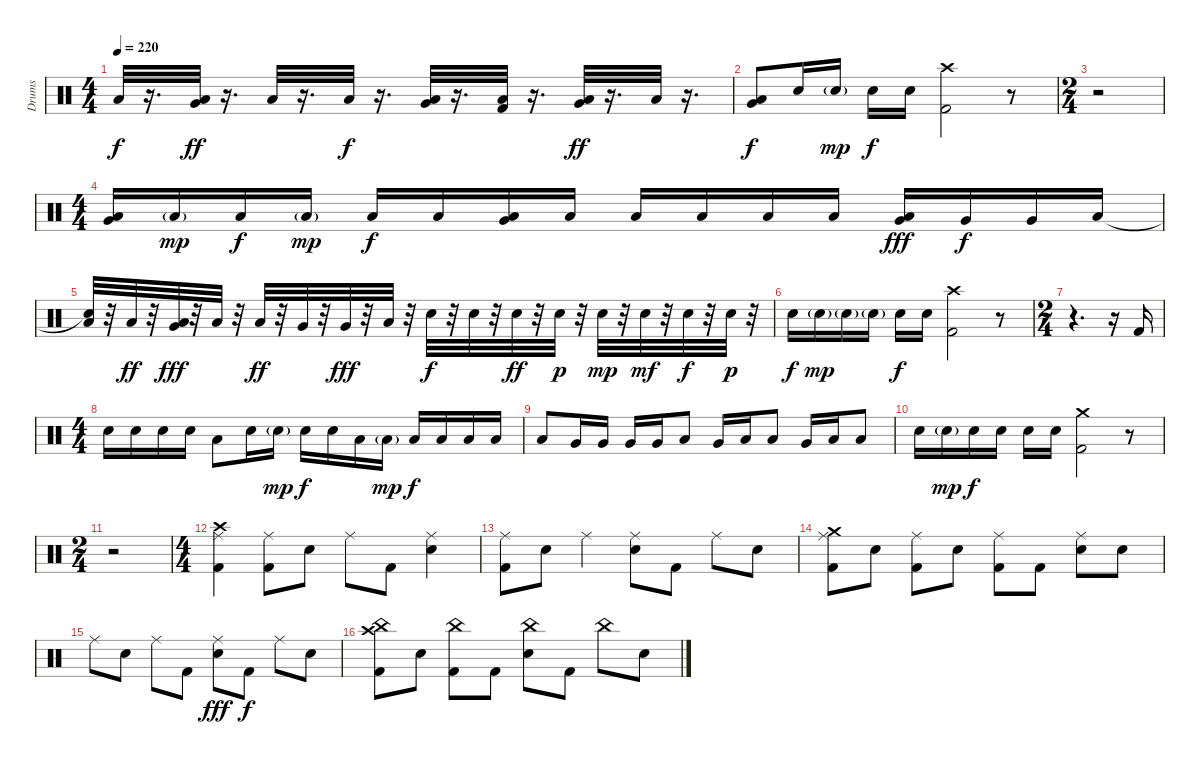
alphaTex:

\track ("Drums" "Drums") {instrument percussion}
\staff {score}
\articulation defaults
\ts (4 4)
\tempo 220
\clef neutral
\ks c "Low Floor Tom (hit)".32{dy f}
r.16{d} ("Very Low Tom (hit)" "Low Tom (hit)").32{dy ff} r.16{d} "Low Floor Tom (hit)".32 r.16{d} "Low Floor Tom (hit)".32{dy f} r.16{d} ("Very Low Tom (hit)" "Low Tom (hit)").32 r.16{d} ("Kick (hit) 2" "Low Floor Tom (hit)").32 r.16{d} ("Very Low Tom (hit)" "Low Tom (hit)").32{dy ff} r.16{d} "Low Floor Tom (hit)".32 r.16{d} |
("Low Tom (hit)" "Very Low Tom (hit)").8{dy f} "Electric Snare (hit)".16 "Electric Snare (hit)"{g}.16{dy mp} "Electric Snare (hit)".16{dy f} "Electric Snare (hit)".16 ("Crash high (hit)" "Kick (hit) 2").2 r.8 |
\ts (2 4)
r.2 |
\ts (4 4)
("Low Tom (hit)" "Very Low Tom (hit)").16 "Low Floor Tom (hit)"{g}.16{dy mp} "Low Floor Tom (hit)".16{dy f} "Low Floor Tom (hit)"{g}.16{dy mp} "Low Floor Tom (hit)".16{dy f} "Low Floor Tom (hit)".16 ("Low Tom (hit)" "Very Low Tom (hit)").16 "Low Floor Tom (hit)".16 "Low Floor Tom (hit)".16 "Low Floor Tom (hit)".16 "Low Floor Tom (hit)".16 "Low Floor Tom (hit)".16 ("Low Tom (hit)" "Very Low Tom (hit)").16{dy fff} "Very Low Tom (hit)".16{dy f} "Very Low Tom (hit)".16 "Low Floor Tom (hit)".16 |
("Snare (hit)"{t} "Low Floor Tom (hit)").32 r.32 "Low Floor Tom (hit)".32{dy ff} r.32 ("Very Low Tom (hit)" "Low Tom (hit)").32{dy fff} r.32 "Low Floor Tom (hit)".32 r.32 "Low Floor Tom (hit)".32{dy ff} r.32 "Very Low Tom (hit)".32 r.32 "Very Low Tom (hit)".32{dy fff} r.32 "Low Floor Tom (hit)".32 r.32 "Electric Snare (hit)".32{dy f} r.32 "Electric Snare (hit)".32 r.32 "Electric Snare (hit)".32{dy ff} r.32 "Electric Snare (hit)".32{dy p} r.32 "Electric Snare (hit)".32{dy mp} r.32 "Electric Snare (hit)".32{dy mf} r.32 "Electric Snare (hit)".32{dy f} r.32 "Electric Snare (hit)".32{dy p} r.32 |
"Electric Snare (hit)".16{dy f} "Electric Snare (hit)"{g}.16{dy mp} "Electric Snare (hit)"{g}.16 "Electric Snare (hit)"{g}.16 "Electric Snare (hit)".16{dy f} "Electric Snare (hit)".16 ("Crash high (hit)" "Kick (hit) 2").2 r.8 |
\ts (2 4)
r.4{d} r.16 "Kick (hit) 2".16 |
\ts (4 4)
"Electric Snare (hit)".16 "Electric Snare (hit)".16 "Electric Snare (hit)".16 "Electric Snare (hit)".16 "Low Floor Tom (hit)".8 "Electric Snare (hit)".16 "Electric Snare (hit)"{g}.16{dy mp} "Electric Snare (hit)".16{dy f} "Electric Snare (hit)".16 "Low Floor Tom (hit)".16 "Low Tom (hit)"{g}.16{dy mp} "Low Tom (hit)".16{dy f} "Low Tom (hit)".16 "Low Tom (hit)".16 "Low Tom (hit)".16 |
"Low Floor Tom (hit)".8 "Very Low Tom (hit)".16 "Very Low Tom (hit)".16 "Very Low Tom (hit)".16 "Very Low Tom (hit)".16 "Low Floor Tom (hit)".8 "Very Low Tom (hit)".16 "Low Tom (hit)".16 "Low Floor Tom (hit)".8 "Very Low Tom (hit)".16 "Low Tom (hit)".16 "Low Floor Tom (hit)".8 |
"Electric Snare (hit)".16 "Electric Snare (hit)"{g}.16{dy mp} "Electric Snare (hit)".16{dy f} "Electric Snare (hit)".16 "Electric Snare (hit)".16 "Electric Snare (hit)".16 ("Crash medium (hit)" "Kick (hit) 2").2 r.8 |
\ts (2 4)
r.2 |
\ts (4 4)
("Crash high (hit)" "Ride (middle)" "Kick (hit) 2").4 ("Ride (middle)" "Kick (hit) 2").8 "Electric Snare (hit)".8 "Ride (middle)".8 "Kick (hit) 2".8 ("Ride (middle)" "Electric Snare (hit)").4 |
("Ride (middle)" "Kick (hit) 2").8 "Electric Snare (hit)".8 "Ride (middle)".4 ("Ride (middle)" "Electric Snare (hit)").8 "Kick (hit) 2".8 "Ride (middle)".8 "Electric Snare (hit)".8 |
("Crash medium (hit)" "Ride (middle)" "Kick (hit) 2").8 "Electric Snare (hit)".8 ("Ride (middle)" "Kick (hit) 2").8 "Electric Snare (hit)".8 ("Ride (middle)" "Kick (hit) 2").8 "Kick (hit) 2".8 ("Ride (middle)" "Electric Snare (hit)").8 "Electric Snare (hit)".8 |
"Ride (middle)".8 "Electric Snare (hit)".8 "Ride (middle)".8 "Kick (hit) 2".8 ("Ride (middle)" "Electric Snare (hit)").8{dy fff} "Kick (hit) 2".8{dy f} "Ride (middle)".8 "Electric Snare (hit)".8 |
("Crash high (hit)" "China (hit)" "Kick (hit) 2").8 "Electric Snare (hit)".8 ("China (hit)" "Kick (hit) 2").8 "Kick (hit) 2".8 ("China (hit)" "Electric Snare (hit)").8 "Kick (hit) 2".8 "China (hit)".8 "Electric Snare (hit)".8
